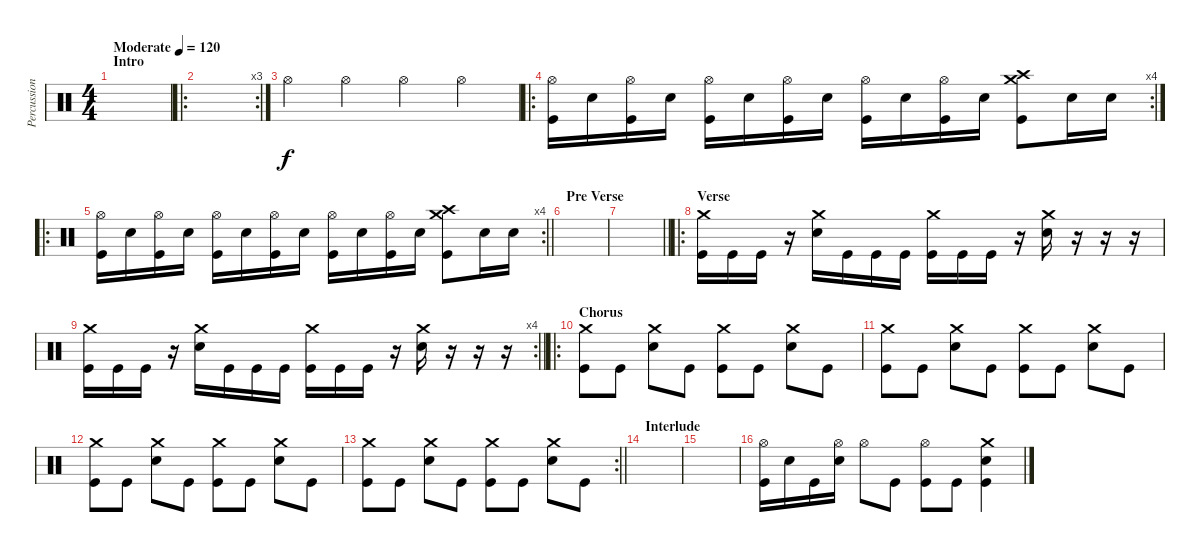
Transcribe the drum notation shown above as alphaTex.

\track ("Percussion" "Percussion") {instrument percussion}
\staff {score}
\articulation defaults
\ts (4 4)
\section ("" "Intro")
\tempo (120 "Moderate")
\clef neutral
\ks c
|
\ro
\rc 3
|
"Hi-Hat (open)".4 "Hi-Hat (open)".4 "Hi-Hat (open)".4 "Hi-Hat (open)".4 |
\ro
\rc 4
("Hi-Hat (open)" "Kick (hit)").16 "Snare (hit) 2".16 ("Hi-Hat (open)" "Kick (hit)").16 "Snare (hit) 2".16 ("Hi-Hat (open)" "Kick (hit)").16 "Snare (hit) 2".16 ("Hi-Hat (open)" "Kick (hit)").16 "Snare (hit) 2".16 ("Hi-Hat (open)" "Kick (hit)").16 "Snare (hit) 2".16 ("Hi-Hat (open)" "Kick (hit)").16 "Snare (hit) 2".16 ("Crash medium (hit)" "Crash high (hit)" "Kick (hit)").8 "Snare (hit) 2".16 "Snare (hit) 2".16 |
\ro
\rc 4
\barLineRight lightlight
("Hi-Hat (open)" "Kick (hit)").16 "Snare (hit) 2".16 ("Hi-Hat (open)" "Kick (hit)").16 "Snare (hit) 2".16 ("Hi-Hat (open)" "Kick (hit)").16 "Snare (hit) 2".16 ("Hi-Hat (open)" "Kick (hit)").16 "Snare (hit) 2".16 ("Hi-Hat (open)" "Kick (hit)").16 "Snare (hit) 2".16 ("Hi-Hat (open)" "Kick (hit)").16 "Snare (hit) 2".16 ("Crash medium (hit)" "Crash high (hit)" "Kick (hit)").8 "Snare (hit) 2".16 "Snare (hit) 2".16 |
\section ("" "Pre Verse")
|
\barLineRight lightlight
|
\ro
\section ("" "Verse")
("Crash medium (hit)" "Kick (hit)").16 "Kick (hit)".16 "Kick (hit)".16 r.16 ("Crash medium (hit)" "Snare (hit) 2").16 "Kick (hit)".16 "Kick (hit)".16 "Kick (hit)".16 ("Crash medium (hit)" "Kick (hit)").16 "Kick (hit)".16 "Kick (hit)".16 r.16 ("Crash medium (hit)" "Snare (hit) 2").16 r.16 r.16 r.16 |
\rc 4
\barLineRight lightlight
("Crash medium (hit)" "Kick (hit)").16 "Kick (hit)".16 "Kick (hit)".16 r.16 ("Crash medium (hit)" "Snare (hit) 2").16 "Kick (hit)".16 "Kick (hit)".16 "Kick (hit)".16 ("Crash medium (hit)" "Kick (hit)").16 "Kick (hit)".16 "Kick (hit)".16 r.16 ("Crash medium (hit)" "Snare (hit) 2").16 r.16 r.16 r.16 |
\ro
\section ("" "Chorus")
("Crash medium (hit)" "Kick (hit)").8 "Kick (hit)".8 ("Crash medium (hit)" "Snare (hit) 2").8 "Kick (hit)".8 ("Crash medium (hit)" "Kick (hit)").8 "Kick (hit)".8 ("Crash medium (hit)" "Snare (hit) 2").8 "Kick (hit)".8 |
("Crash medium (hit)" "Kick (hit)").8 "Kick (hit)".8 ("Crash medium (hit)" "Snare (hit) 2").8 "Kick (hit)".8 ("Crash medium (hit)" "Kick (hit)").8 "Kick (hit)".8 ("Crash medium (hit)" "Snare (hit) 2").8 "Kick (hit)".8 |
("Crash medium (hit)" "Kick (hit)").8 "Kick (hit)".8 ("Crash medium (hit)" "Snare (hit) 2").8 "Kick (hit)".8 ("Crash medium (hit)" "Kick (hit)").8 "Kick (hit)".8 ("Crash medium (hit)" "Snare (hit) 2").8 "Kick (hit)".8 |
\rc 2
\barLineRight lightlight
("Crash medium (hit)" "Kick (hit)").8 "Kick (hit)".8 ("Crash medium (hit)" "Snare (hit) 2").8 "Kick (hit)".8 ("Crash medium (hit)" "Kick (hit)").8 "Kick (hit)".8 ("Crash medium (hit)" "Snare (hit) 2").8 "Kick (hit)".8 |
\section ("" "Interlude")
|
|
("Hi-Hat (open)" "Kick (hit)").16 "Snare (hit) 2".16 "Kick (hit)".16 ("Hi-Hat (open)" "Snare (hit) 2").16 "Hi-Hat (open)".8 "Kick (hit)".8 ("Hi-Hat (open)" "Kick (hit)").8 "Kick (hit)".8 ("Crash medium (hit)" "Snare (hit) 2" "Kick (hit)").4
